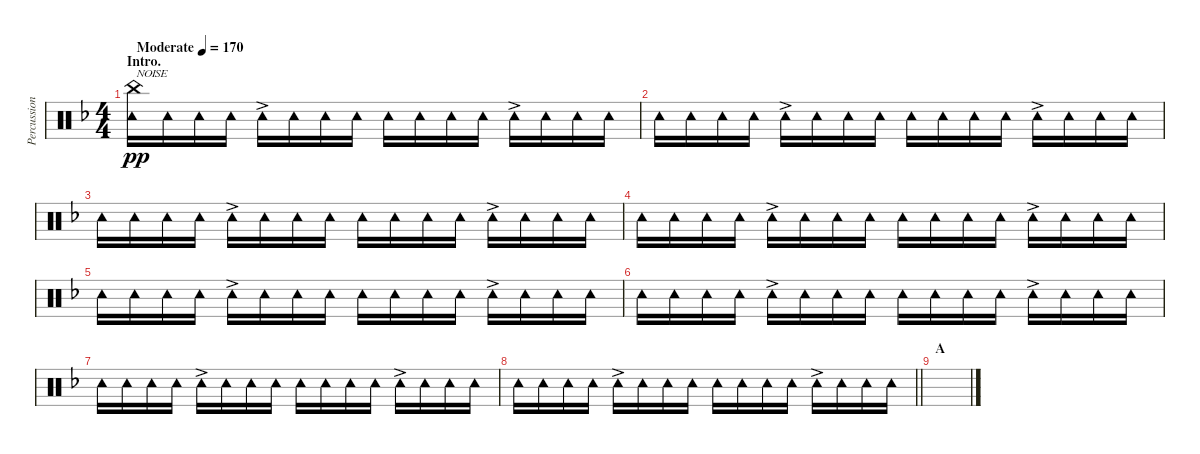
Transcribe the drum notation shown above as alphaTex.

\track ("Percussion (Tainaka Ritsu)" "Percussion") {instrument percussion}
\staff {score}
\articulation defaults
\ts (4 4)
\section ("" "Intro.")
\tempo (170 "Moderate")
\clef neutral
\ks f
("China (hit)" "Tambourine (hit)").16{txt "NOISE" dy pp} "Tambourine (hit)".16 "Tambourine (hit)".16 "Tambourine (hit)".16 "Tambourine (hit)"{ac}.16 "Tambourine (hit)".16 "Tambourine (hit)".16 "Tambourine (hit)".16 "Tambourine (hit)".16 "Tambourine (hit)".16 "Tambourine (hit)".16 "Tambourine (hit)".16 "Tambourine (hit)"{ac}.16 "Tambourine (hit)".16 "Tambourine (hit)".16 "Tambourine (hit)".16 |
"Tambourine (hit)".16 "Tambourine (hit)".16 "Tambourine (hit)".16 "Tambourine (hit)".16 "Tambourine (hit)"{ac}.16 "Tambourine (hit)".16 "Tambourine (hit)".16 "Tambourine (hit)".16 "Tambourine (hit)".16 "Tambourine (hit)".16 "Tambourine (hit)".16 "Tambourine (hit)".16 "Tambourine (hit)"{ac}.16 "Tambourine (hit)".16 "Tambourine (hit)".16 "Tambourine (hit)".16 |
"Tambourine (hit)".16 "Tambourine (hit)".16 "Tambourine (hit)".16 "Tambourine (hit)".16 "Tambourine (hit)"{ac}.16 "Tambourine (hit)".16 "Tambourine (hit)".16 "Tambourine (hit)".16 "Tambourine (hit)".16 "Tambourine (hit)".16 "Tambourine (hit)".16 "Tambourine (hit)".16 "Tambourine (hit)"{ac}.16 "Tambourine (hit)".16 "Tambourine (hit)".16 "Tambourine (hit)".16 |
"Tambourine (hit)".16 "Tambourine (hit)".16 "Tambourine (hit)".16 "Tambourine (hit)".16 "Tambourine (hit)"{ac}.16 "Tambourine (hit)".16 "Tambourine (hit)".16 "Tambourine (hit)".16 "Tambourine (hit)".16 "Tambourine (hit)".16 "Tambourine (hit)".16 "Tambourine (hit)".16 "Tambourine (hit)"{ac}.16 "Tambourine (hit)".16 "Tambourine (hit)".16 "Tambourine (hit)".16 |
"Tambourine (hit)".16 "Tambourine (hit)".16 "Tambourine (hit)".16 "Tambourine (hit)".16 "Tambourine (hit)"{ac}.16 "Tambourine (hit)".16 "Tambourine (hit)".16 "Tambourine (hit)".16 "Tambourine (hit)".16 "Tambourine (hit)".16 "Tambourine (hit)".16 "Tambourine (hit)".16 "Tambourine (hit)"{ac}.16 "Tambourine (hit)".16 "Tambourine (hit)".16 "Tambourine (hit)".16 |
"Tambourine (hit)".16 "Tambourine (hit)".16 "Tambourine (hit)".16 "Tambourine (hit)".16 "Tambourine (hit)"{ac}.16 "Tambourine (hit)".16 "Tambourine (hit)".16 "Tambourine (hit)".16 "Tambourine (hit)".16 "Tambourine (hit)".16 "Tambourine (hit)".16 "Tambourine (hit)".16 "Tambourine (hit)"{ac}.16 "Tambourine (hit)".16 "Tambourine (hit)".16 "Tambourine (hit)".16 |
"Tambourine (hit)".16 "Tambourine (hit)".16 "Tambourine (hit)".16 "Tambourine (hit)".16 "Tambourine (hit)"{ac}.16 "Tambourine (hit)".16 "Tambourine (hit)".16 "Tambourine (hit)".16 "Tambourine (hit)".16 "Tambourine (hit)".16 "Tambourine (hit)".16 "Tambourine (hit)".16 "Tambourine (hit)"{ac}.16 "Tambourine (hit)".16 "Tambourine (hit)".16 "Tambourine (hit)".16 |
\barLineRight lightlight "Tambourine (hit)".16 "Tambourine (hit)".16 "Tambourine (hit)".16 "Tambourine (hit)".16 "Tambourine (hit)"{ac}.16 "Tambourine (hit)".16 "Tambourine (hit)".16 "Tambourine (hit)".16 "Tambourine (hit)".16 "Tambourine (hit)".16 "Tambourine (hit)".16 "Tambourine (hit)".16 "Tambourine (hit)"{ac}.16 "Tambourine (hit)".16 "Tambourine (hit)".16 "Tambourine (hit)".16
|
\section ("" "A")
